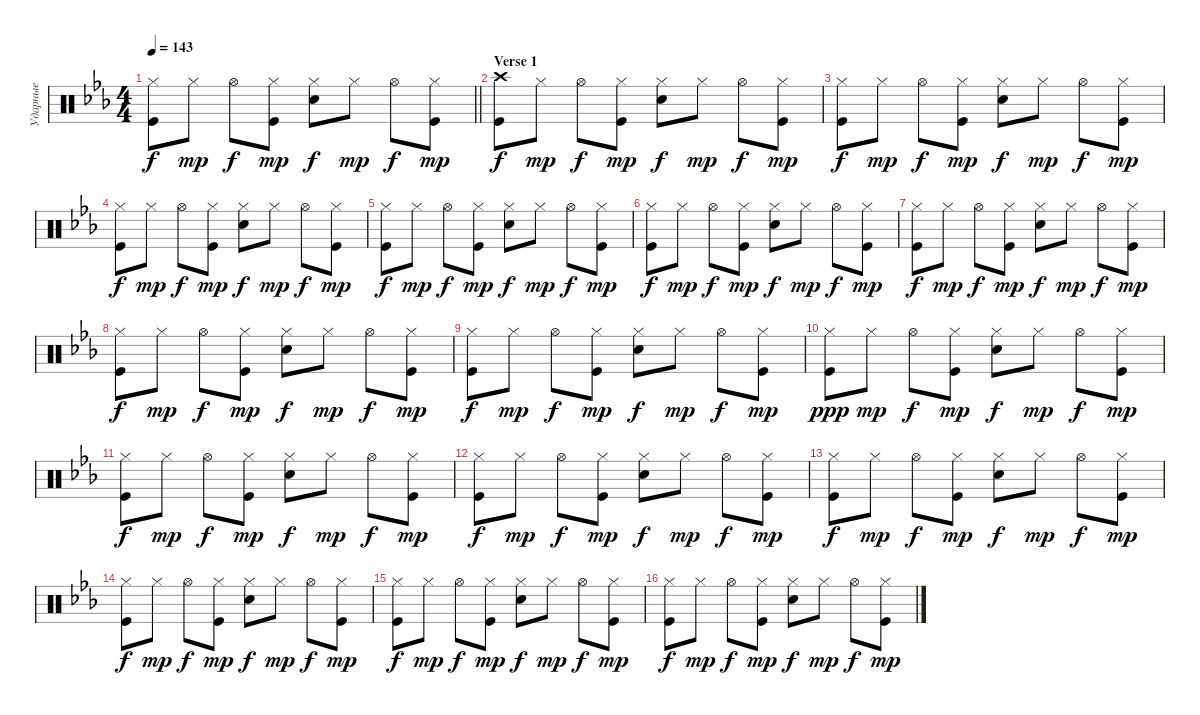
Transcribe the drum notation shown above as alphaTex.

\track ("Ударные" "Ударные") {instrument percussion}
\staff {score}
\articulation defaults
\ts (4 4)
\tempo 143
\clef neutral
\barLineRight lightlight
\ks cminor
("Kick (hit)" "Hi-Hat (closed)").8{dy f} "Hi-Hat (closed)".8{dy mp} "Hi-Hat (open)".8{dy f} ("Kick (hit)" "Hi-Hat (closed)").8{dy mp} ("Snare (hit) 2" "Hi-Hat (closed)").8{dy f} "Hi-Hat (closed)".8{dy mp} "Hi-Hat (open)".8{dy f} ("Kick (hit)" "Hi-Hat (closed)").8{dy mp} |
\section ("" "Verse 1")
("Kick (hit)" "Crash high (hit)").8{dy f} "Hi-Hat (closed)".8{dy mp} "Hi-Hat (open)".8{dy f} ("Kick (hit)" "Hi-Hat (closed)").8{dy mp} ("Snare (hit) 2" "Hi-Hat (closed)").8{dy f} "Hi-Hat (closed)".8{dy mp} "Hi-Hat (open)".8{dy f} ("Kick (hit)" "Hi-Hat (closed)").8{dy mp} |
("Kick (hit)" "Hi-Hat (closed)").8{dy f} "Hi-Hat (closed)".8{dy mp} "Hi-Hat (open)".8{dy f} ("Kick (hit)" "Hi-Hat (closed)").8{dy mp} ("Snare (hit) 2" "Hi-Hat (closed)").8{dy f} "Hi-Hat (closed)".8{dy mp} "Hi-Hat (open)".8{dy f} ("Kick (hit)" "Hi-Hat (closed)").8{dy mp} |
("Kick (hit)" "Hi-Hat (closed)").8{dy f} "Hi-Hat (closed)".8{dy mp} "Hi-Hat (open)".8{dy f} ("Kick (hit)" "Hi-Hat (closed)").8{dy mp} ("Snare (hit) 2" "Hi-Hat (closed)").8{dy f} "Hi-Hat (closed)".8{dy mp} "Hi-Hat (open)".8{dy f} ("Kick (hit)" "Hi-Hat (closed)").8{dy mp} |
("Kick (hit)" "Hi-Hat (closed)").8{dy f} "Hi-Hat (closed)".8{dy mp} "Hi-Hat (open)".8{dy f} ("Kick (hit)" "Hi-Hat (closed)").8{dy mp} ("Snare (hit) 2" "Hi-Hat (closed)").8{dy f} "Hi-Hat (closed)".8{dy mp} "Hi-Hat (open)".8{dy f} ("Kick (hit)" "Hi-Hat (closed)").8{dy mp} |
("Kick (hit)" "Hi-Hat (closed)").8{dy f} "Hi-Hat (closed)".8{dy mp} "Hi-Hat (open)".8{dy f} ("Kick (hit)" "Hi-Hat (closed)").8{dy mp} ("Snare (hit) 2" "Hi-Hat (closed)").8{dy f} "Hi-Hat (closed)".8{dy mp} "Hi-Hat (open)".8{dy f} ("Kick (hit)" "Hi-Hat (closed)").8{dy mp} |
("Kick (hit)" "Hi-Hat (closed)").8{dy f} "Hi-Hat (closed)".8{dy mp} "Hi-Hat (open)".8{dy f} ("Kick (hit)" "Hi-Hat (closed)").8{dy mp} ("Snare (hit) 2" "Hi-Hat (closed)").8{dy f} "Hi-Hat (closed)".8{dy mp} "Hi-Hat (open)".8{dy f} ("Kick (hit)" "Hi-Hat (closed)").8{dy mp} |
("Kick (hit)" "Hi-Hat (closed)").8{dy f} "Hi-Hat (closed)".8{dy mp} "Hi-Hat (open)".8{dy f} ("Kick (hit)" "Hi-Hat (closed)").8{dy mp} ("Snare (hit) 2" "Hi-Hat (closed)").8{dy f} "Hi-Hat (closed)".8{dy mp} "Hi-Hat (open)".8{dy f} ("Kick (hit)" "Hi-Hat (closed)").8{dy mp} |
("Kick (hit)" "Hi-Hat (closed)").8{dy f} "Hi-Hat (closed)".8{dy mp} "Hi-Hat (open)".8{dy f} ("Kick (hit)" "Hi-Hat (closed)").8{dy mp} ("Snare (hit) 2" "Hi-Hat (closed)").8{dy f} "Hi-Hat (closed)".8{dy mp} "Hi-Hat (open)".8{dy f} ("Kick (hit)" "Hi-Hat (closed)").8{dy mp} |
("Kick (hit)" "Hi-Hat (closed)").8{dy ppp} "Hi-Hat (closed)".8{dy mp} "Hi-Hat (open)".8{dy f} ("Kick (hit)" "Hi-Hat (closed)").8{dy mp} ("Snare (hit) 2" "Hi-Hat (closed)").8{dy f} "Hi-Hat (closed)".8{dy mp} "Hi-Hat (open)".8{dy f} ("Kick (hit)" "Hi-Hat (closed)").8{dy mp} |
("Kick (hit)" "Hi-Hat (closed)").8{dy f} "Hi-Hat (closed)".8{dy mp} "Hi-Hat (open)".8{dy f} ("Kick (hit)" "Hi-Hat (closed)").8{dy mp} ("Snare (hit) 2" "Hi-Hat (closed)").8{dy f} "Hi-Hat (closed)".8{dy mp} "Hi-Hat (open)".8{dy f} ("Kick (hit)" "Hi-Hat (closed)").8{dy mp} |
("Kick (hit)" "Hi-Hat (closed)").8{dy f} "Hi-Hat (closed)".8{dy mp} "Hi-Hat (open)".8{dy f} ("Kick (hit)" "Hi-Hat (closed)").8{dy mp} ("Snare (hit) 2" "Hi-Hat (closed)").8{dy f} "Hi-Hat (closed)".8{dy mp} "Hi-Hat (open)".8{dy f} ("Kick (hit)" "Hi-Hat (closed)").8{dy mp} |
("Kick (hit)" "Hi-Hat (closed)").8{dy f} "Hi-Hat (closed)".8{dy mp} "Hi-Hat (open)".8{dy f} ("Kick (hit)" "Hi-Hat (closed)").8{dy mp} ("Snare (hit) 2" "Hi-Hat (closed)").8{dy f} "Hi-Hat (closed)".8{dy mp} "Hi-Hat (open)".8{dy f} ("Kick (hit)" "Hi-Hat (closed)").8{dy mp} |
("Kick (hit)" "Hi-Hat (closed)").8{dy f} "Hi-Hat (closed)".8{dy mp} "Hi-Hat (open)".8{dy f} ("Kick (hit)" "Hi-Hat (closed)").8{dy mp} ("Snare (hit) 2" "Hi-Hat (closed)").8{dy f} "Hi-Hat (closed)".8{dy mp} "Hi-Hat (open)".8{dy f} ("Kick (hit)" "Hi-Hat (closed)").8{dy mp} |
("Kick (hit)" "Hi-Hat (closed)").8{dy f} "Hi-Hat (closed)".8{dy mp} "Hi-Hat (open)".8{dy f} ("Kick (hit)" "Hi-Hat (closed)").8{dy mp} ("Snare (hit) 2" "Hi-Hat (closed)").8{dy f} "Hi-Hat (closed)".8{dy mp} "Hi-Hat (open)".8{dy f} ("Kick (hit)" "Hi-Hat (closed)").8{dy mp} |
("Kick (hit)" "Hi-Hat (closed)").8{dy f} "Hi-Hat (closed)".8{dy mp} "Hi-Hat (open)".8{dy f} ("Kick (hit)" "Hi-Hat (closed)").8{dy mp} ("Snare (hit) 2" "Hi-Hat (closed)").8{dy f} "Hi-Hat (closed)".8{dy mp} "Hi-Hat (open)".8{dy f} ("Kick (hit)" "Hi-Hat (closed)").8{dy mp}
